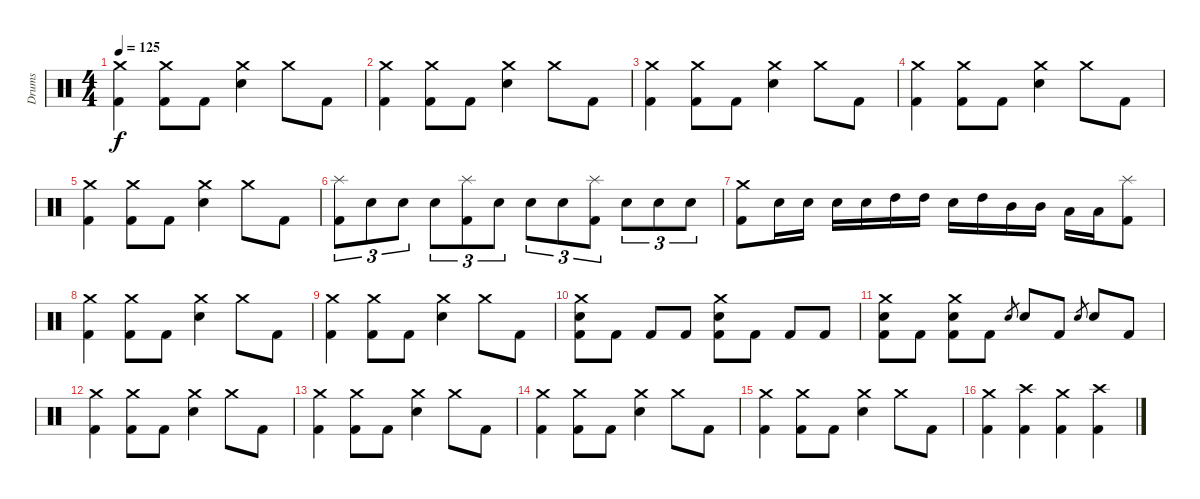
\track ("Drums" "Drums") {instrument percussion}
\staff {score}
\articulation defaults
\ts (4 4)
\tempo 125
\clef neutral
\ks c
("Crash medium (hit)" "Kick (hit) 2").4{dy f} ("Crash medium (hit)" "Kick (hit) 2").8 "Kick (hit) 2".8 ("Crash medium (hit)" "Snare (hit) 2").4 "Crash medium (hit)".8 "Kick (hit) 2".8 |
("Crash medium (hit)" "Kick (hit) 2").4 ("Crash medium (hit)" "Kick (hit) 2").8 "Kick (hit) 2".8 ("Crash medium (hit)" "Snare (hit) 2").4 "Crash medium (hit)".8 "Kick (hit) 2".8 |
("Crash medium (hit)" "Kick (hit) 2").4 ("Crash medium (hit)" "Kick (hit) 2").8 "Kick (hit) 2".8 ("Crash medium (hit)" "Snare (hit) 2").4 "Crash medium (hit)".8 "Kick (hit) 2".8 |
("Crash medium (hit)" "Kick (hit) 2").4 ("Crash medium (hit)" "Kick (hit) 2").8 "Kick (hit) 2".8 ("Crash medium (hit)" "Snare (hit) 2").4 "Crash medium (hit)".8 "Kick (hit) 2".8 |
("Crash medium (hit)" "Kick (hit) 2").4 ("Crash medium (hit)" "Kick (hit) 2").8 "Kick (hit) 2".8 ("Crash medium (hit)" "Snare (hit) 2").4 "Crash medium (hit)".8 "Kick (hit) 2".8 |
("Splash (hit)" "Kick (hit) 2").8{tu (3 2)} "Snare (hit) 2".8{tu (3 2)} "Snare (hit) 2".8{tu (3 2)} "Snare (hit) 2".8{tu (3 2)} ("Splash (hit)" "Kick (hit) 2").8{tu (3 2)} "Snare (hit) 2".8{tu (3 2)} "Snare (hit) 2".8{tu (3 2)} "Snare (hit) 2".8{tu (3 2)} ("Splash (hit)" "Kick (hit) 2").8{tu (3 2)} "Snare (hit) 2".8{tu (3 2)} "Snare (hit) 2".8{tu (3 2)} "Snare (hit) 2".8{tu (3 2)} |
("Crash medium (hit)" "Kick (hit) 2").8 "Snare (hit) 2".16 "Snare (hit) 2".16 "Snare (hit) 2".16 "Snare (hit) 2".16 "High Tom (hit)".16 "High Tom (hit)".16 "Snare (hit) 2".16 "High Tom (hit)".16 "Mid Tom (hit)".16 "Mid Tom (hit)".16 "Low Tom (hit)".16 "Low Tom (hit)".16 ("Splash (hit)" "Kick (hit) 2").8 |
("Crash medium (hit)" "Kick (hit) 2").4 ("Crash medium (hit)" "Kick (hit) 2").8 "Kick (hit) 2".8 ("Crash medium (hit)" "Snare (hit) 2").4 "Crash medium (hit)".8 "Kick (hit) 2".8 |
("Crash medium (hit)" "Kick (hit) 2").4 ("Crash medium (hit)" "Kick (hit) 2").8 "Kick (hit) 2".8 ("Crash medium (hit)" "Snare (hit) 2").4 "Crash medium (hit)".8 "Kick (hit) 2".8 |
("Crash medium (hit)" "Snare (hit) 2" "Kick (hit) 2").8 "Kick (hit) 2".8 "Kick (hit) 2".8 "Kick (hit) 2".8 ("Crash medium (hit)" "Snare (hit) 2" "Kick (hit) 2").8 "Kick (hit) 2".8 "Kick (hit) 2".8 "Kick (hit) 2".8 |
("Crash medium (hit)" "Snare (hit) 2" "Kick (hit) 2").8 "Kick (hit) 2".8 ("Crash medium (hit)" "Snare (hit) 2" "Kick (hit) 2").8 "Kick (hit) 2".8 "Snare (hit) 2".8{gr} "Snare (hit) 2".8 "Kick (hit) 2".8 "Snare (hit) 2".8{gr} "Snare (hit) 2".8 "Kick (hit) 2".8 |
("Crash medium (hit)" "Kick (hit) 2").4 ("Crash medium (hit)" "Kick (hit) 2").8 "Kick (hit) 2".8 ("Crash medium (hit)" "Snare (hit) 2").4 "Crash medium (hit)".8 "Kick (hit) 2".8 |
("Crash medium (hit)" "Kick (hit) 2").4 ("Crash medium (hit)" "Kick (hit) 2").8 "Kick (hit) 2".8 ("Crash medium (hit)" "Snare (hit) 2").4 "Crash medium (hit)".8 "Kick (hit) 2".8 |
("Crash medium (hit)" "Kick (hit) 2").4 ("Crash medium (hit)" "Kick (hit) 2").8 "Kick (hit) 2".8 ("Crash medium (hit)" "Snare (hit) 2").4 "Crash medium (hit)".8 "Kick (hit) 2".8 |
("Crash medium (hit)" "Kick (hit) 2").4 ("Crash medium (hit)" "Kick (hit) 2").8 "Kick (hit) 2".8 ("Crash medium (hit)" "Snare (hit) 2").4 "Crash medium (hit)".8 "Kick (hit) 2".8 |
("Crash medium (hit)" "Kick (hit) 2").4 ("Crash high (hit)" "Kick (hit) 2").4 ("Crash medium (hit)" "Kick (hit) 2").4 ("Crash high (hit)" "Kick (hit) 2").4
